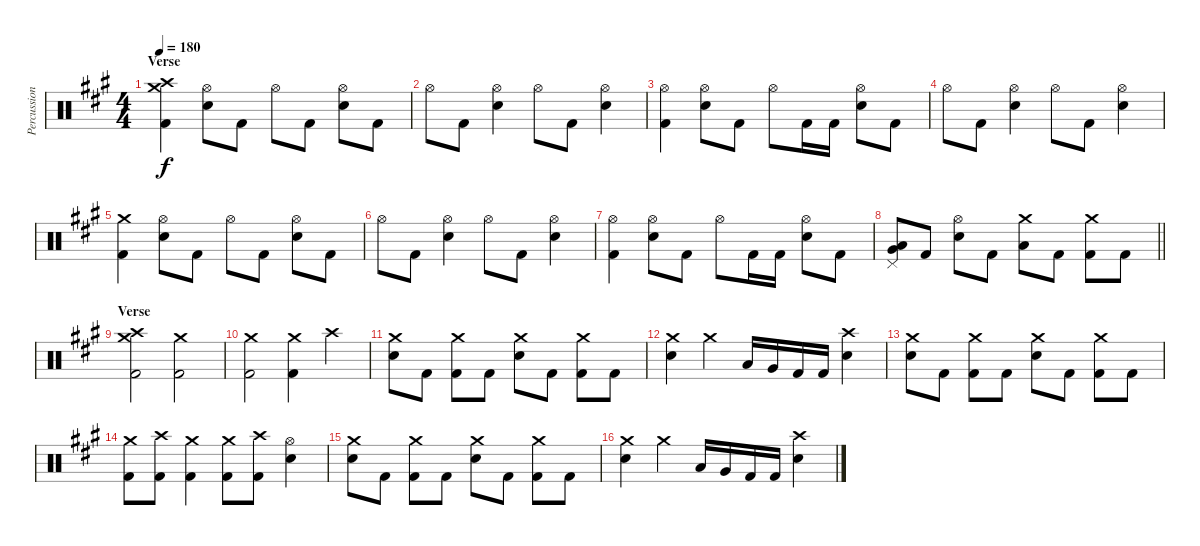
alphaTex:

\track ("Percussion" "Percussion") {instrument percussion}
\staff {score}
\articulation defaults
\ts (4 4)
\section ("" "Verse")
\tempo 180
\clef neutral
\ks f#minor
("Crash medium (hit)" "Crash high (hit)" "Kick (hit) 2").4{dy f} ("Hi-Hat (open)" "Electric Snare (hit)").8 "Kick (hit) 2".8 "Hi-Hat (open)".8 "Kick (hit) 2".8 ("Hi-Hat (open)" "Electric Snare (hit)").8 "Kick (hit) 2".8 |
"Hi-Hat (open)".8 "Kick (hit) 2".8 ("Hi-Hat (open)" "Electric Snare (hit)").4 "Hi-Hat (open)".8 "Kick (hit) 2".8 ("Hi-Hat (open)" "Electric Snare (hit)").4 |
("Hi-Hat (open)" "Kick (hit) 2").4 ("Hi-Hat (open)" "Electric Snare (hit)").8 "Kick (hit) 2".8 "Hi-Hat (open)".8 "Kick (hit) 2".16 "Kick (hit) 2".16 ("Hi-Hat (open)" "Electric Snare (hit)").8 "Kick (hit) 2".8 |
"Hi-Hat (open)".8 "Kick (hit) 2".8 ("Hi-Hat (open)" "Electric Snare (hit)").4 "Hi-Hat (open)".8 "Kick (hit) 2".8 ("Hi-Hat (open)" "Electric Snare (hit)").4 |
("Crash medium (hit)" "Kick (hit) 2").4 ("Hi-Hat (open)" "Electric Snare (hit)").8 "Kick (hit) 2".8 "Hi-Hat (open)".8 "Kick (hit) 2".8 ("Hi-Hat (open)" "Electric Snare (hit)").8 "Kick (hit) 2".8 |
"Hi-Hat (open)".8 "Kick (hit) 2".8 ("Hi-Hat (open)" "Electric Snare (hit)").4 "Hi-Hat (open)".8 "Kick (hit) 2".8 ("Hi-Hat (open)" "Electric Snare (hit)").4 |
("Hi-Hat (open)" "Kick (hit) 2").4 ("Hi-Hat (open)" "Electric Snare (hit)").8 "Kick (hit) 2".8 "Hi-Hat (open)".8 "Kick (hit) 2".16 "Kick (hit) 2".16 ("Hi-Hat (open)" "Electric Snare (hit)").8 "Kick (hit) 2".8 |
\barLineRight lightlight
("Low Tom (hit)" "Pedal Hi-Hat (hit)" "Very Low Tom (hit)").8 "Kick (hit) 2".8 ("Hi-Hat (open)" "Electric Snare (hit)").8 "Kick (hit) 2".8 ("Crash medium (hit)" "Low Floor Tom (hit)").8 "Kick (hit) 2".8 ("Crash medium (hit)" "Kick (hit) 2").8 "Kick (hit) 2".8 |
\section ("" "Verse")
("Crash medium (hit)" "Crash high (hit)" "Kick (hit) 2").2 ("Crash medium (hit)" "Kick (hit) 2").2 |
("Crash medium (hit)" "Kick (hit) 2").2 ("Crash medium (hit)" "Kick (hit) 2").4 "Crash high (hit)".4 |
("Crash medium (hit)" "Electric Snare (hit)").8 "Kick (hit) 2".8 ("Crash medium (hit)" "Kick (hit) 2").8 "Kick (hit) 2".8 ("Crash medium (hit)" "Electric Snare (hit)").8 "Kick (hit) 2".8 ("Crash medium (hit)" "Kick (hit) 2").8 "Kick (hit) 2".8 |
("Crash medium (hit)" "Electric Snare (hit)").4 "Crash medium (hit)".4 "Low Tom (hit)".16 "Very Low Tom (hit)".16 "Kick (hit) 2".16 "Kick (hit) 2".16 ("Crash high (hit)" "Electric Snare (hit)").4 |
("Crash medium (hit)" "Electric Snare (hit)").8 "Kick (hit) 2".8 ("Crash medium (hit)" "Kick (hit) 2").8 "Kick (hit) 2".8 ("Crash medium (hit)" "Electric Snare (hit)").8 "Kick (hit) 2".8 ("Crash medium (hit)" "Kick (hit) 2").8 "Kick (hit) 2".8 |
("Crash medium (hit)" "Kick (hit) 2").8 ("Crash high (hit)" "Kick (hit) 2").8 ("Crash medium (hit)" "Kick (hit) 2").4 ("Crash medium (hit)" "Kick (hit) 2").8 ("Crash high (hit)" "Kick (hit) 2").8 ("Hi-Hat (open)" "Electric Snare (hit)").4 |
("Crash medium (hit)" "Electric Snare (hit)").8 "Kick (hit) 2".8 ("Crash medium (hit)" "Kick (hit) 2").8 "Kick (hit) 2".8 ("Crash medium (hit)" "Electric Snare (hit)").8 "Kick (hit) 2".8 ("Crash medium (hit)" "Kick (hit) 2").8 "Kick (hit) 2".8 |
("Crash medium (hit)" "Electric Snare (hit)").4 "Crash medium (hit)".4 "Low Tom (hit)".16 "Very Low Tom (hit)".16 "Kick (hit) 2".16 "Kick (hit) 2".16 ("Crash high (hit)" "Electric Snare (hit)").4
